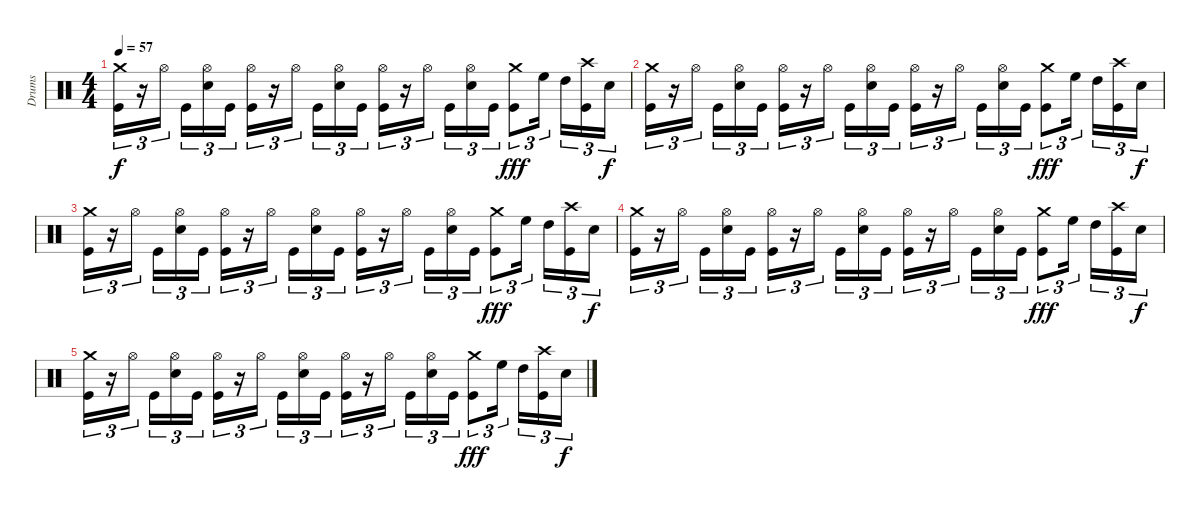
\track ("Drums" "Drums") {instrument percussion}
\staff {score}
\articulation defaults
\ts (4 4)
\tempo 57
\clef neutral
\ks c
("Kick (hit)" "Crash medium (hit)").16{tu (3 2) dy f} r.16{tu (3 2)} "Hi-Hat (open)".16{tu (3 2) beam splitsecondary} "Kick (hit)".16{tu (3 2)} ("Snare (hit) 2" "Hi-Hat (open)").16{tu (3 2)} "Kick (hit)".16{tu (3 2)} ("Kick (hit)" "Hi-Hat (open)").16{tu (3 2)} r.16{tu (3 2)} "Hi-Hat (open)".16{tu (3 2) beam splitsecondary} "Kick (hit)".16{tu (3 2)} ("Snare (hit) 2" "Hi-Hat (open)").16{tu (3 2)} "Kick (hit)".16{tu (3 2)} ("Kick (hit)" "Hi-Hat (open)").16{tu (3 2)} r.16{tu (3 2)} "Hi-Hat (open)".16{tu (3 2) beam splitsecondary} "Kick (hit)".16{tu (3 2)} ("Snare (hit) 2" "Hi-Hat (open)").16{tu (3 2)} "Kick (hit)".16{tu (3 2)} ("Kick (hit)" "Crash medium (hit)").8{tu (3 2) dy fff} "High Floor Tom (hit)".16{tu (3 2) beam splitsecondary} "High Tom (hit)".16{tu (3 2)} ("Kick (hit)" "Crash high (hit)").16{tu (3 2)} "Snare (hit) 2".16{tu (3 2) dy f} |
("Kick (hit)" "Crash medium (hit)").16{tu (3 2)} r.16{tu (3 2)} "Hi-Hat (open)".16{tu (3 2) beam splitsecondary} "Kick (hit)".16{tu (3 2)} ("Snare (hit) 2" "Hi-Hat (open)").16{tu (3 2)} "Kick (hit)".16{tu (3 2)} ("Kick (hit)" "Hi-Hat (open)").16{tu (3 2)} r.16{tu (3 2)} "Hi-Hat (open)".16{tu (3 2) beam splitsecondary} "Kick (hit)".16{tu (3 2)} ("Snare (hit) 2" "Hi-Hat (open)").16{tu (3 2)} "Kick (hit)".16{tu (3 2)} ("Kick (hit)" "Hi-Hat (open)").16{tu (3 2)} r.16{tu (3 2)} "Hi-Hat (open)".16{tu (3 2) beam splitsecondary} "Kick (hit)".16{tu (3 2)} ("Snare (hit) 2" "Hi-Hat (open)").16{tu (3 2)} "Kick (hit)".16{tu (3 2)} ("Kick (hit)" "Crash medium (hit)").8{tu (3 2) dy fff} "High Floor Tom (hit)".16{tu (3 2) beam splitsecondary} "High Tom (hit)".16{tu (3 2)} ("Kick (hit)" "Crash high (hit)").16{tu (3 2)} "Snare (hit) 2".16{tu (3 2) dy f} |
("Kick (hit)" "Crash medium (hit)").16{tu (3 2)} r.16{tu (3 2)} "Hi-Hat (open)".16{tu (3 2) beam splitsecondary} "Kick (hit)".16{tu (3 2)} ("Snare (hit) 2" "Hi-Hat (open)").16{tu (3 2)} "Kick (hit)".16{tu (3 2)} ("Kick (hit)" "Hi-Hat (open)").16{tu (3 2)} r.16{tu (3 2)} "Hi-Hat (open)".16{tu (3 2) beam splitsecondary} "Kick (hit)".16{tu (3 2)} ("Snare (hit) 2" "Hi-Hat (open)").16{tu (3 2)} "Kick (hit)".16{tu (3 2)} ("Kick (hit)" "Hi-Hat (open)").16{tu (3 2)} r.16{tu (3 2)} "Hi-Hat (open)".16{tu (3 2) beam splitsecondary} "Kick (hit)".16{tu (3 2)} ("Snare (hit) 2" "Hi-Hat (open)").16{tu (3 2)} "Kick (hit)".16{tu (3 2)} ("Kick (hit)" "Crash medium (hit)").8{tu (3 2) dy fff} "High Floor Tom (hit)".16{tu (3 2) beam splitsecondary} "High Tom (hit)".16{tu (3 2)} ("Kick (hit)" "Crash high (hit)").16{tu (3 2)} "Snare (hit) 2".16{tu (3 2) dy f} |
("Kick (hit)" "Crash medium (hit)").16{tu (3 2)} r.16{tu (3 2)} "Hi-Hat (open)".16{tu (3 2) beam splitsecondary} "Kick (hit)".16{tu (3 2)} ("Snare (hit) 2" "Hi-Hat (open)").16{tu (3 2)} "Kick (hit)".16{tu (3 2)} ("Kick (hit)" "Hi-Hat (open)").16{tu (3 2)} r.16{tu (3 2)} "Hi-Hat (open)".16{tu (3 2) beam splitsecondary} "Kick (hit)".16{tu (3 2)} ("Snare (hit) 2" "Hi-Hat (open)").16{tu (3 2)} "Kick (hit)".16{tu (3 2)} ("Kick (hit)" "Hi-Hat (open)").16{tu (3 2)} r.16{tu (3 2)} "Hi-Hat (open)".16{tu (3 2) beam splitsecondary} "Kick (hit)".16{tu (3 2)} ("Snare (hit) 2" "Hi-Hat (open)").16{tu (3 2)} "Kick (hit)".16{tu (3 2)} ("Kick (hit)" "Crash medium (hit)").8{tu (3 2) dy fff} "High Floor Tom (hit)".16{tu (3 2) beam splitsecondary} "High Tom (hit)".16{tu (3 2)} ("Kick (hit)" "Crash high (hit)").16{tu (3 2)} "Snare (hit) 2".16{tu (3 2) dy f} |
("Kick (hit)" "Crash medium (hit)").16{tu (3 2)} r.16{tu (3 2)} "Hi-Hat (open)".16{tu (3 2) beam splitsecondary} "Kick (hit)".16{tu (3 2)} ("Snare (hit) 2" "Hi-Hat (open)").16{tu (3 2)} "Kick (hit)".16{tu (3 2)} ("Kick (hit)" "Hi-Hat (open)").16{tu (3 2)} r.16{tu (3 2)} "Hi-Hat (open)".16{tu (3 2) beam splitsecondary} "Kick (hit)".16{tu (3 2)} ("Snare (hit) 2" "Hi-Hat (open)").16{tu (3 2)} "Kick (hit)".16{tu (3 2)} ("Kick (hit)" "Hi-Hat (open)").16{tu (3 2)} r.16{tu (3 2)} "Hi-Hat (open)".16{tu (3 2) beam splitsecondary} "Kick (hit)".16{tu (3 2)} ("Snare (hit) 2" "Hi-Hat (open)").16{tu (3 2)} "Kick (hit)".16{tu (3 2)} ("Kick (hit)" "Crash medium (hit)").8{tu (3 2) dy fff} "High Floor Tom (hit)".16{tu (3 2) beam splitsecondary} "High Tom (hit)".16{tu (3 2)} ("Kick (hit)" "Crash high (hit)").16{tu (3 2)} "Snare (hit) 2".16{tu (3 2) dy f}
